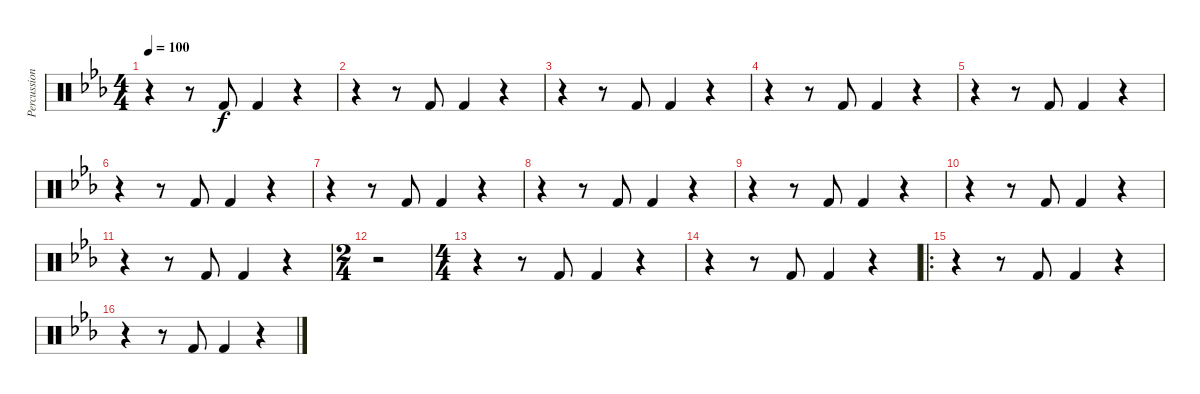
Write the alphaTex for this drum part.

\track ("Percussion" "Percussion") {instrument percussion}
\staff {score}
\articulation defaults
\ts (4 4)
\tempo 100
\clef neutral
\ks cminor
r.4{dy f} r.8 "Kick (hit) 2".8 "Kick (hit) 2".4 r.4 |
r.4 r.8 "Kick (hit) 2".8 "Kick (hit) 2".4 r.4 |
r.4 r.8 "Kick (hit) 2".8 "Kick (hit) 2".4 r.4 |
r.4 r.8 "Kick (hit) 2".8 "Kick (hit) 2".4 r.4 |
r.4 r.8 "Kick (hit) 2".8 "Kick (hit) 2".4 r.4 |
r.4 r.8 "Kick (hit) 2".8 "Kick (hit) 2".4 r.4 |
r.4 r.8 "Kick (hit) 2".8 "Kick (hit) 2".4 r.4 |
r.4 r.8 "Kick (hit) 2".8 "Kick (hit) 2".4 r.4 |
r.4 r.8 "Kick (hit) 2".8 "Kick (hit) 2".4 r.4 |
r.4 r.8 "Kick (hit) 2".8 "Kick (hit) 2".4 r.4 |
r.4 r.8 "Kick (hit) 2".8 "Kick (hit) 2".4 r.4 |
\ts (2 4)
r.2 |
\ts (4 4)
r.4 r.8 "Kick (hit) 2".8 "Kick (hit) 2".4 r.4 |
r.4 r.8 "Kick (hit) 2".8 "Kick (hit) 2".4 r.4 |
\ro
r.4 r.8 "Kick (hit) 2".8 "Kick (hit) 2".4 r.4 |
r.4 r.8 "Kick (hit) 2".8 "Kick (hit) 2".4 r.4
